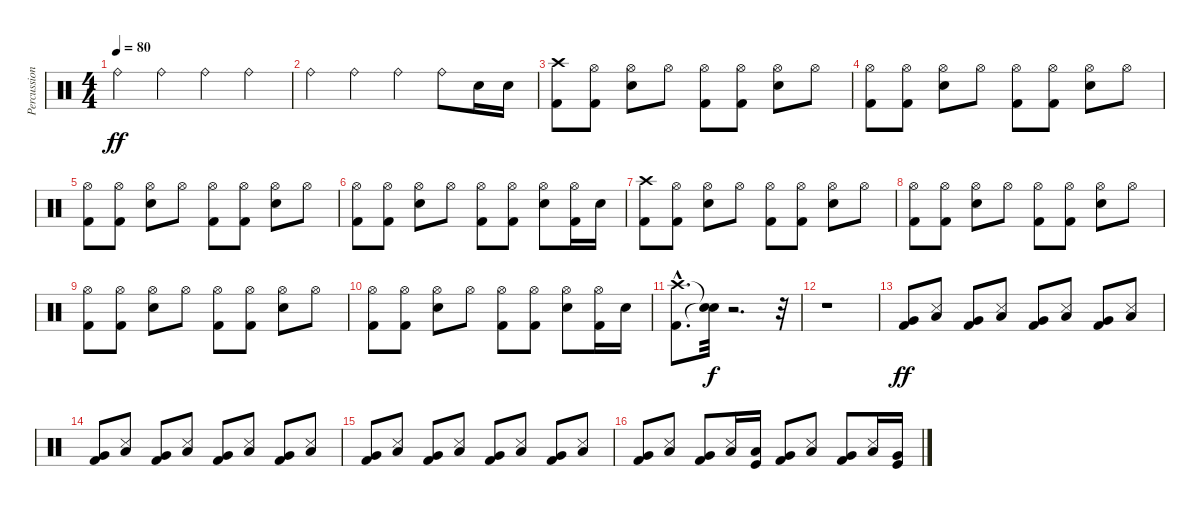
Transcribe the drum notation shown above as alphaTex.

\track ("Percussions" "Percussion") {instrument percussion}
\staff {score}
\articulation defaults
\ts (4 4)
\tempo 80
\clef neutral
\ks c "Ride (bell)".4{dy ff} "Ride (bell)".4 "Ride (bell)".4 "Ride (bell)".4
|
"Ride (bell)".4 "Ride (bell)".4 "Ride (bell)".4 "Ride (bell)".8 "Snare (hit) 2".16 "Snare (hit) 2".16 |
("Kick (hit) 2" "Crash high (hit)").8 ("Kick (hit) 2" "Hi-Hat (open)").8 ("Snare (hit) 2" "Hi-Hat (open)").8 "Hi-Hat (open)".8 ("Kick (hit) 2" "Hi-Hat (open)").8 ("Kick (hit) 2" "Hi-Hat (open)").8 ("Snare (hit) 2" "Hi-Hat (open)").8 "Hi-Hat (open)".8 |
("Kick (hit) 2" "Hi-Hat (open)").8 ("Kick (hit) 2" "Hi-Hat (open)").8 ("Snare (hit) 2" "Hi-Hat (open)").8 "Hi-Hat (open)".8 ("Kick (hit) 2" "Hi-Hat (open)").8 ("Kick (hit) 2" "Hi-Hat (open)").8 ("Snare (hit) 2" "Hi-Hat (open)").8 "Hi-Hat (open)".8 |
("Kick (hit) 2" "Hi-Hat (open)").8 ("Kick (hit) 2" "Hi-Hat (open)").8 ("Snare (hit) 2" "Hi-Hat (open)").8 "Hi-Hat (open)".8 ("Kick (hit) 2" "Hi-Hat (open)").8 ("Kick (hit) 2" "Hi-Hat (open)").8 ("Snare (hit) 2" "Hi-Hat (open)").8 "Hi-Hat (open)".8 |
("Kick (hit) 2" "Hi-Hat (open)").8 ("Kick (hit) 2" "Hi-Hat (open)").8 ("Snare (hit) 2" "Hi-Hat (open)").8 "Hi-Hat (open)".8 ("Kick (hit) 2" "Hi-Hat (open)").8 ("Kick (hit) 2" "Hi-Hat (open)").8 ("Snare (hit) 2" "Hi-Hat (open)").8 ("Kick (hit) 2" "Hi-Hat (open)").16 "Snare (hit) 2".16 |
("Kick (hit) 2" "Crash high (hit)").8 ("Kick (hit) 2" "Hi-Hat (open)").8 ("Snare (hit) 2" "Hi-Hat (open)").8 "Hi-Hat (open)".8 ("Kick (hit) 2" "Hi-Hat (open)").8 ("Kick (hit) 2" "Hi-Hat (open)").8 ("Snare (hit) 2" "Hi-Hat (open)").8 "Hi-Hat (open)".8 |
("Kick (hit) 2" "Hi-Hat (open)").8 ("Kick (hit) 2" "Hi-Hat (open)").8 ("Snare (hit) 2" "Hi-Hat (open)").8 "Hi-Hat (open)".8 ("Kick (hit) 2" "Hi-Hat (open)").8 ("Kick (hit) 2" "Hi-Hat (open)").8 ("Snare (hit) 2" "Hi-Hat (open)").8 "Hi-Hat (open)".8 |
("Kick (hit) 2" "Hi-Hat (open)").8 ("Kick (hit) 2" "Hi-Hat (open)").8 ("Snare (hit) 2" "Hi-Hat (open)").8 "Hi-Hat (open)".8 ("Kick (hit) 2" "Hi-Hat (open)").8 ("Kick (hit) 2" "Hi-Hat (open)").8 ("Snare (hit) 2" "Hi-Hat (open)").8 "Hi-Hat (open)".8 |
("Kick (hit) 2" "Hi-Hat (open)").8 ("Kick (hit) 2" "Hi-Hat (open)").8 ("Snare (hit) 2" "Hi-Hat (open)").8 "Hi-Hat (open)".8 ("Kick (hit) 2" "Hi-Hat (open)").8 ("Kick (hit) 2" "Hi-Hat (open)").8 ("Snare (hit) 2" "Hi-Hat (open)").8 ("Kick (hit) 2" "Hi-Hat (open)").16 "Snare (hit) 2".16 |
("Kick (hit) 2"{hac} "Crash high (hit)"{hac}).8{d} ("Snare (hit)"{t} "Snare (hit)"{t}).32{dy f} r.2{d} r.32 |
r.1 |
("Kick (hit) 2" "Very Low Tom (hit)").8{dy ff} ("Metronome (hit)" "Low Floor Tom (hit)").8 ("Kick (hit) 2" "Very Low Tom (hit)").8 ("Metronome (hit)" "Low Floor Tom (hit)").8 ("Kick (hit) 2" "Very Low Tom (hit)").8 ("Metronome (hit)" "Low Floor Tom (hit)").8 ("Kick (hit) 2" "Very Low Tom (hit)").8 ("Metronome (hit)" "Low Floor Tom (hit)").8 |
("Kick (hit) 2" "Very Low Tom (hit)").8 ("Metronome (hit)" "Low Floor Tom (hit)").8 ("Kick (hit) 2" "Very Low Tom (hit)").8 ("Metronome (hit)" "Low Floor Tom (hit)").8 ("Kick (hit) 2" "Very Low Tom (hit)").8 ("Metronome (hit)" "Low Floor Tom (hit)").8 ("Kick (hit) 2" "Very Low Tom (hit)").8 ("Metronome (hit)" "Low Floor Tom (hit)").8 |
("Kick (hit) 2" "Very Low Tom (hit)").8 ("Metronome (hit)" "Low Floor Tom (hit)").8 ("Kick (hit) 2" "Very Low Tom (hit)").8 ("Metronome (hit)" "Low Floor Tom (hit)").8 ("Kick (hit) 2" "Very Low Tom (hit)").8 ("Metronome (hit)" "Low Floor Tom (hit)").8 ("Kick (hit) 2" "Very Low Tom (hit)").8 ("Metronome (hit)" "Low Floor Tom (hit)").8 |
("Kick (hit) 2" "Very Low Tom (hit)").8 ("Metronome (hit)" "Low Floor Tom (hit)").8 ("Kick (hit) 2" "Very Low Tom (hit)").8 ("Metronome (hit)" "Low Floor Tom (hit)").16 ("Kick (hit)" "Low Tom (hit)").16 ("Kick (hit) 2" "Very Low Tom (hit)").8 ("Metronome (hit)" "Low Floor Tom (hit)").8 ("Kick (hit) 2" "Very Low Tom (hit)").8 ("Metronome (hit)" "Low Floor Tom (hit)").16 ("Kick (hit)" "Very Low Tom (hit)").16
